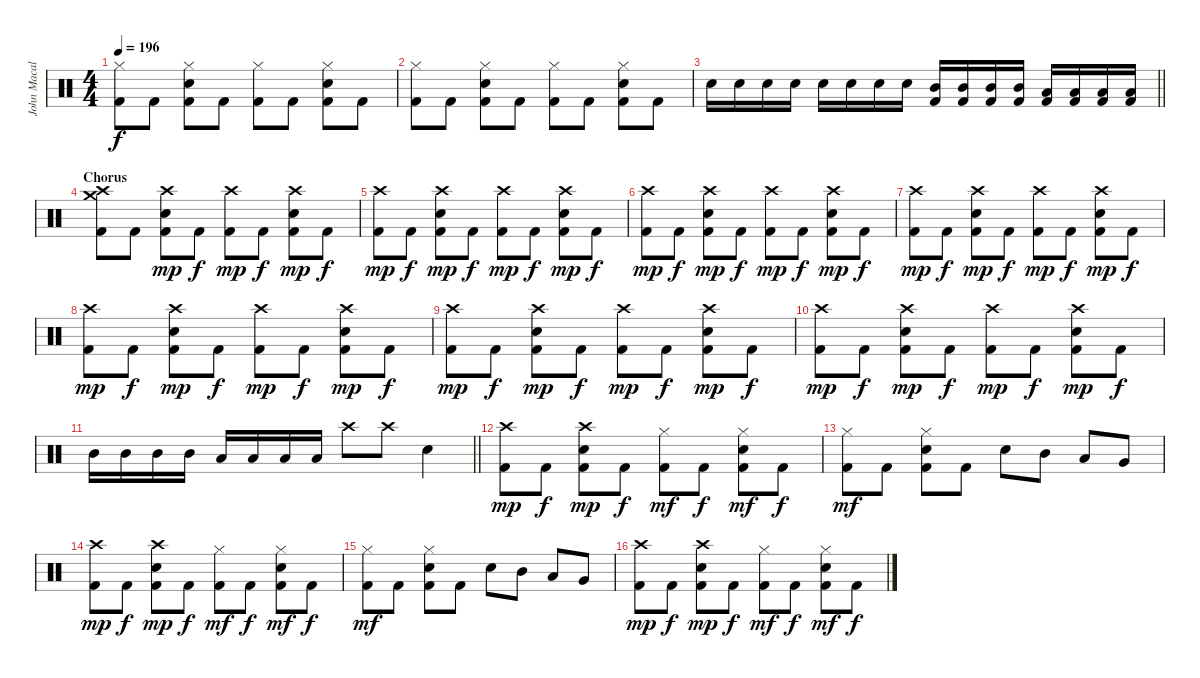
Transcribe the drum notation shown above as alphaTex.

\track ("John Macaluso" "John Macal") {instrument percussion}
\staff {score}
\articulation defaults
\ts (4 4)
\tempo 196
\clef neutral
\ks c
("Hi-Hat (closed)" "Kick (hit) 2").8{dy f} "Kick (hit) 2".8 ("Electric Snare (hit)" "Hi-Hat (closed)" "Kick (hit) 2").8 "Kick (hit) 2".8 ("Hi-Hat (closed)" "Kick (hit) 2").8 "Kick (hit) 2".8 ("Electric Snare (hit)" "Hi-Hat (closed)" "Kick (hit) 2").8 "Kick (hit) 2".8 |
("Hi-Hat (closed)" "Kick (hit) 2").8 "Kick (hit) 2".8 ("Electric Snare (hit)" "Hi-Hat (closed)" "Kick (hit) 2").8 "Kick (hit) 2".8 ("Hi-Hat (closed)" "Kick (hit) 2").8 "Kick (hit) 2".8 ("Electric Snare (hit)" "Hi-Hat (closed)" "Kick (hit) 2").8 "Kick (hit) 2".8 |
\barLineRight lightlight "Electric Snare (hit)".16 "Electric Snare (hit)".16 "Electric Snare (hit)".16 "Electric Snare (hit)".16 "Electric Snare (hit)".16 "Electric Snare (hit)".16 "Electric Snare (hit)".16 "Electric Snare (hit)".16
("Mid Tom (hit)" "Kick (hit) 2").16 ("Mid Tom (hit)" "Kick (hit) 2").16 ("Mid Tom (hit)" "Kick (hit) 2").16 ("Mid Tom (hit)" "Kick (hit) 2").16 ("Low Tom (hit)" "Kick (hit) 2").16 ("Low Tom (hit)" "Kick (hit) 2").16 ("Low Tom (hit)" "Kick (hit) 2").16 ("Low Tom (hit)" "Kick (hit) 2").16 |
\section ("" "Chorus")
("Crash medium (hit)" "Crash high (hit)" "Kick (hit) 2").8 "Kick (hit) 2".8 ("Crash high (hit)" "Electric Snare (hit)" "Kick (hit) 2").8{dy mp} "Kick (hit) 2".8{dy f} ("Crash high (hit)" "Kick (hit) 2").8{dy mp} "Kick (hit) 2".8{dy f} ("Crash high (hit)" "Electric Snare (hit)" "Kick (hit) 2").8{dy mp} "Kick (hit) 2".8{dy f} |
("Crash high (hit)" "Kick (hit) 2").8{dy mp} "Kick (hit) 2".8{dy f} ("Crash high (hit)" "Electric Snare (hit)" "Kick (hit) 2").8{dy mp} "Kick (hit) 2".8{dy f} ("Crash high (hit)" "Kick (hit) 2").8{dy mp} "Kick (hit) 2".8{dy f} ("Crash high (hit)" "Electric Snare (hit)" "Kick (hit) 2").8{dy mp} "Kick (hit) 2".8{dy f} |
("Crash high (hit)" "Kick (hit) 2").8{dy mp} "Kick (hit) 2".8{dy f} ("Crash high (hit)" "Electric Snare (hit)" "Kick (hit) 2").8{dy mp} "Kick (hit) 2".8{dy f} ("Crash high (hit)" "Kick (hit) 2").8{dy mp} "Kick (hit) 2".8{dy f} ("Crash high (hit)" "Electric Snare (hit)" "Kick (hit) 2").8{dy mp} "Kick (hit) 2".8{dy f} |
("Crash high (hit)" "Kick (hit) 2").8{dy mp} "Kick (hit) 2".8{dy f} ("Crash high (hit)" "Electric Snare (hit)" "Kick (hit) 2").8{dy mp} "Kick (hit) 2".8{dy f} ("Crash high (hit)" "Kick (hit) 2").8{dy mp} "Kick (hit) 2".8{dy f} ("Crash high (hit)" "Electric Snare (hit)" "Kick (hit) 2").8{dy mp} "Kick (hit) 2".8{dy f} |
("Crash high (hit)" "Kick (hit) 2").8{dy mp} "Kick (hit) 2".8{dy f} ("Crash high (hit)" "Electric Snare (hit)" "Kick (hit) 2").8{dy mp} "Kick (hit) 2".8{dy f} ("Crash high (hit)" "Kick (hit) 2").8{dy mp} "Kick (hit) 2".8{dy f} ("Crash high (hit)" "Electric Snare (hit)" "Kick (hit) 2").8{dy mp} "Kick (hit) 2".8{dy f} |
("Crash high (hit)" "Kick (hit) 2").8{dy mp} "Kick (hit) 2".8{dy f} ("Crash high (hit)" "Electric Snare (hit)" "Kick (hit) 2").8{dy mp} "Kick (hit) 2".8{dy f} ("Crash high (hit)" "Kick (hit) 2").8{dy mp} "Kick (hit) 2".8{dy f} ("Crash high (hit)" "Electric Snare (hit)" "Kick (hit) 2").8{dy mp} "Kick (hit) 2".8{dy f} |
("Crash high (hit)" "Kick (hit) 2").8{dy mp} "Kick (hit) 2".8{dy f} ("Crash high (hit)" "Electric Snare (hit)" "Kick (hit) 2").8{dy mp} "Kick (hit) 2".8{dy f} ("Crash high (hit)" "Kick (hit) 2").8{dy mp} "Kick (hit) 2".8{dy f} ("Crash high (hit)" "Electric Snare (hit)" "Kick (hit) 2").8{dy mp} "Kick (hit) 2".8{dy f} |
\barLineRight lightlight "Mid Tom (hit)".16 "Mid Tom (hit)".16 "Mid Tom (hit)".16 "Mid Tom (hit)".16 "Low Tom (hit)".16 "Low Tom (hit)".16 "Low Tom (hit)".16 "Low Tom (hit)".16 "Crash high (hit)".8 "Crash high (hit)".8 "Electric Snare (hit)".4
|
("Crash high (hit)" "Kick (hit) 2").8{dy mp} "Kick (hit) 2".8{dy f} ("Crash high (hit)" "Electric Snare (hit)" "Kick (hit) 2").8{dy mp} "Kick (hit) 2".8{dy f} ("Hi-Hat (closed)" "Kick (hit) 2").8{dy mf} "Kick (hit) 2".8{dy f} ("Electric Snare (hit)" "Hi-Hat (closed)" "Kick (hit) 2").8{dy mf} "Kick (hit) 2".8{dy f} |
("Hi-Hat (closed)" "Kick (hit) 2").8{dy mf} "Kick (hit) 2".8 ("Electric Snare (hit)" "Hi-Hat (closed)" "Kick (hit) 2").8 "Kick (hit) 2".8 "Electric Snare (hit)".8 "Mid Tom (hit)".8 "Low Tom (hit)".8 "Very Low Tom (hit)".8 |
("Crash high (hit)" "Kick (hit) 2").8{dy mp} "Kick (hit) 2".8{dy f} ("Crash high (hit)" "Electric Snare (hit)" "Kick (hit) 2").8{dy mp} "Kick (hit) 2".8{dy f} ("Hi-Hat (closed)" "Kick (hit) 2").8{dy mf} "Kick (hit) 2".8{dy f} ("Electric Snare (hit)" "Hi-Hat (closed)" "Kick (hit) 2").8{dy mf} "Kick (hit) 2".8{dy f} |
("Hi-Hat (closed)" "Kick (hit) 2").8{dy mf} "Kick (hit) 2".8 ("Electric Snare (hit)" "Hi-Hat (closed)" "Kick (hit) 2").8 "Kick (hit) 2".8 "Electric Snare (hit)".8 "Mid Tom (hit)".8 "Low Tom (hit)".8 "Very Low Tom (hit)".8 |
("Crash high (hit)" "Kick (hit) 2").8{dy mp} "Kick (hit) 2".8{dy f} ("Crash high (hit)" "Electric Snare (hit)" "Kick (hit) 2").8{dy mp} "Kick (hit) 2".8{dy f} ("Hi-Hat (closed)" "Kick (hit) 2").8{dy mf} "Kick (hit) 2".8{dy f} ("Electric Snare (hit)" "Hi-Hat (closed)" "Kick (hit) 2").8{dy mf} "Kick (hit) 2".8{dy f}
